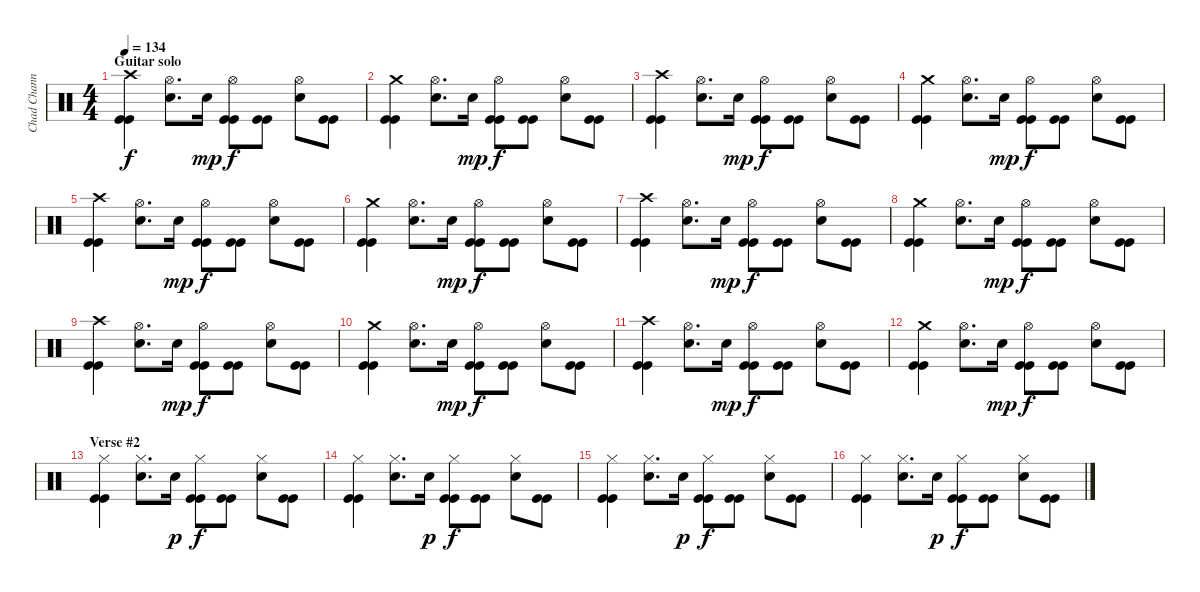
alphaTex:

\track ("Chad Channing" "Chad Chann") {instrument percussion}
\staff {score}
\articulation defaults
\ts (4 4)
\section ("" "Guitar solo")
\tempo 134
\clef neutral
\ks c
("Crash high (hit)" "Kick (hit)" "Kick (hit)").4{dy f} ("Hi-Hat (open)" "Electric Snare (hit)").8{d} "Electric Snare (hit)".16{dy mp} ("Hi-Hat (open)" "Kick (hit)" "Kick (hit)").8{dy f} ("Kick (hit)" "Kick (hit)").8 ("Hi-Hat (open)" "Electric Snare (hit)").8 ("Kick (hit)" "Kick (hit)").8 |
("Crash medium (hit)" "Kick (hit)" "Kick (hit)").4 ("Hi-Hat (open)" "Electric Snare (hit)").8{d} "Electric Snare (hit)".16{dy mp} ("Hi-Hat (open)" "Kick (hit)" "Kick (hit)").8{dy f} ("Kick (hit)" "Kick (hit)").8 ("Hi-Hat (open)" "Electric Snare (hit)").8 ("Kick (hit)" "Kick (hit)").8 |
("Crash high (hit)" "Kick (hit)" "Kick (hit)").4 ("Hi-Hat (open)" "Electric Snare (hit)").8{d} "Electric Snare (hit)".16{dy mp} ("Hi-Hat (open)" "Kick (hit)" "Kick (hit)").8{dy f} ("Kick (hit)" "Kick (hit)").8 ("Hi-Hat (open)" "Electric Snare (hit)").8 ("Kick (hit)" "Kick (hit)").8 |
("Crash medium (hit)" "Kick (hit)" "Kick (hit)").4 ("Hi-Hat (open)" "Electric Snare (hit)").8{d} "Electric Snare (hit)".16{dy mp} ("Hi-Hat (open)" "Kick (hit)" "Kick (hit)").8{dy f} ("Kick (hit)" "Kick (hit)").8 ("Hi-Hat (open)" "Electric Snare (hit)").8 ("Kick (hit)" "Kick (hit)").8 |
("Crash high (hit)" "Kick (hit)" "Kick (hit)").4 ("Hi-Hat (open)" "Electric Snare (hit)").8{d} "Electric Snare (hit)".16{dy mp} ("Hi-Hat (open)" "Kick (hit)" "Kick (hit)").8{dy f} ("Kick (hit)" "Kick (hit)").8 ("Hi-Hat (open)" "Electric Snare (hit)").8 ("Kick (hit)" "Kick (hit)").8 |
("Crash medium (hit)" "Kick (hit)" "Kick (hit)").4 ("Hi-Hat (open)" "Electric Snare (hit)").8{d} "Electric Snare (hit)".16{dy mp} ("Hi-Hat (open)" "Kick (hit)" "Kick (hit)").8{dy f} ("Kick (hit)" "Kick (hit)").8 ("Hi-Hat (open)" "Electric Snare (hit)").8 ("Kick (hit)" "Kick (hit)").8 |
("Crash high (hit)" "Kick (hit)" "Kick (hit)").4 ("Hi-Hat (open)" "Electric Snare (hit)").8{d} "Electric Snare (hit)".16{dy mp} ("Hi-Hat (open)" "Kick (hit)" "Kick (hit)").8{dy f} ("Kick (hit)" "Kick (hit)").8 ("Hi-Hat (open)" "Electric Snare (hit)").8 ("Kick (hit)" "Kick (hit)").8 |
("Crash medium (hit)" "Kick (hit)" "Kick (hit)").4 ("Hi-Hat (open)" "Electric Snare (hit)").8{d} "Electric Snare (hit)".16{dy mp} ("Hi-Hat (open)" "Kick (hit)" "Kick (hit)").8{dy f} ("Kick (hit)" "Kick (hit)").8 ("Hi-Hat (open)" "Electric Snare (hit)").8 ("Kick (hit)" "Kick (hit)").8 |
("Crash high (hit)" "Kick (hit)" "Kick (hit)").4 ("Hi-Hat (open)" "Electric Snare (hit)").8{d} "Electric Snare (hit)".16{dy mp} ("Hi-Hat (open)" "Kick (hit)" "Kick (hit)").8{dy f} ("Kick (hit)" "Kick (hit)").8 ("Hi-Hat (open)" "Electric Snare (hit)").8 ("Kick (hit)" "Kick (hit)").8 |
("Crash medium (hit)" "Kick (hit)" "Kick (hit)").4 ("Hi-Hat (open)" "Electric Snare (hit)").8{d} "Electric Snare (hit)".16{dy mp} ("Hi-Hat (open)" "Kick (hit)" "Kick (hit)").8{dy f} ("Kick (hit)" "Kick (hit)").8 ("Hi-Hat (open)" "Electric Snare (hit)").8 ("Kick (hit)" "Kick (hit)").8 |
("Crash high (hit)" "Kick (hit)" "Kick (hit)").4 ("Hi-Hat (open)" "Electric Snare (hit)").8{d} "Electric Snare (hit)".16{dy mp} ("Hi-Hat (open)" "Kick (hit)" "Kick (hit)").8{dy f} ("Kick (hit)" "Kick (hit)").8 ("Hi-Hat (open)" "Electric Snare (hit)").8 ("Kick (hit)" "Kick (hit)").8 |
("Crash medium (hit)" "Kick (hit)" "Kick (hit)").4 ("Hi-Hat (open)" "Electric Snare (hit)").8{d} "Electric Snare (hit)".16{dy mp} ("Hi-Hat (open)" "Kick (hit)" "Kick (hit)").8{dy f} ("Kick (hit)" "Kick (hit)").8 ("Hi-Hat (open)" "Electric Snare (hit)").8 ("Kick (hit)" "Kick (hit)").8 |
\section ("" "Verse #2")
("Hi-Hat (closed)" "Kick (hit)" "Kick (hit)").4 ("Hi-Hat (closed)" "Electric Snare (hit)").8{d} "Electric Snare (hit)".16{dy p} ("Hi-Hat (closed)" "Kick (hit)" "Kick (hit)").8{dy f} ("Kick (hit)" "Kick (hit)").8 ("Hi-Hat (closed)" "Electric Snare (hit)").8 ("Kick (hit)" "Kick (hit)").8 |
("Hi-Hat (closed)" "Kick (hit)" "Kick (hit)").4 ("Hi-Hat (closed)" "Electric Snare (hit)").8{d} "Electric Snare (hit)".16{dy p} ("Hi-Hat (closed)" "Kick (hit)" "Kick (hit)").8{dy f} ("Kick (hit)" "Kick (hit)").8 ("Hi-Hat (closed)" "Electric Snare (hit)").8 ("Kick (hit)" "Kick (hit)").8 |
("Hi-Hat (closed)" "Kick (hit)" "Kick (hit)").4 ("Hi-Hat (closed)" "Electric Snare (hit)").8{d} "Electric Snare (hit)".16{dy p} ("Hi-Hat (closed)" "Kick (hit)" "Kick (hit)").8{dy f} ("Kick (hit)" "Kick (hit)").8 ("Hi-Hat (closed)" "Electric Snare (hit)").8 ("Kick (hit)" "Kick (hit)").8 |
("Hi-Hat (closed)" "Kick (hit)" "Kick (hit)").4 ("Hi-Hat (closed)" "Electric Snare (hit)").8{d} "Electric Snare (hit)".16{dy p} ("Hi-Hat (closed)" "Kick (hit)" "Kick (hit)").8{dy f} ("Kick (hit)" "Kick (hit)").8 ("Hi-Hat (closed)" "Electric Snare (hit)").8 ("Kick (hit)" "Kick (hit)").8
